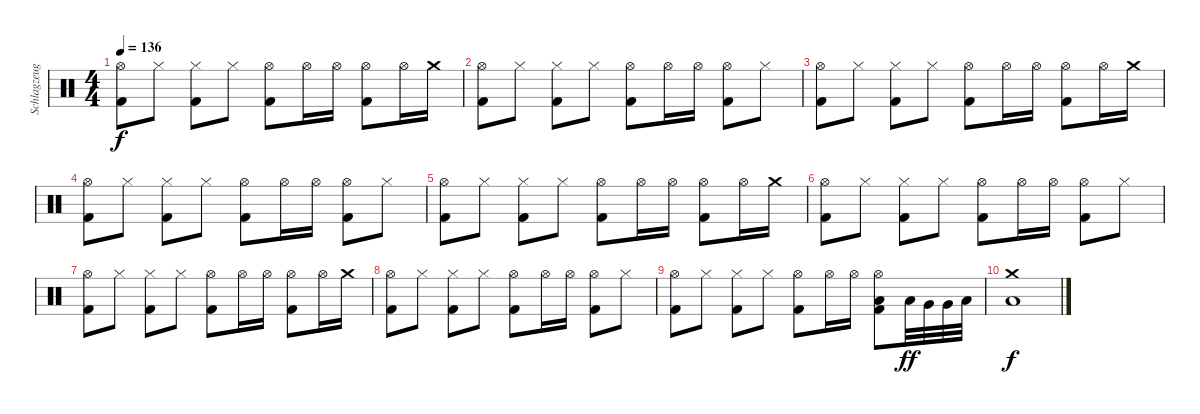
\track ("Schlagzeug - der Hund Marie" "Schlagzeug") {instrument percussion}
\staff {score}
\articulation defaults
\ts (4 4)
\tempo 136
\clef neutral
\ks c
("Hi-Hat (open)" "Kick (hit) 2").8{dy f} "Hi-Hat (closed)".8 ("Hi-Hat (closed)" "Kick (hit) 2").8 "Hi-Hat (closed)".8 ("Hi-Hat (open)" "Kick (hit) 2").8 "Hi-Hat (open)".16 "Hi-Hat (open)".16 ("Hi-Hat (open)" "Kick (hit) 2").8 "Hi-Hat (open)".16 "Crash medium (hit)".16 |
("Hi-Hat (open)" "Kick (hit) 2").8 "Hi-Hat (closed)".8 ("Hi-Hat (closed)" "Kick (hit) 2").8 "Hi-Hat (closed)".8 ("Hi-Hat (open)" "Kick (hit) 2").8 "Hi-Hat (open)".16 "Hi-Hat (open)".16 ("Hi-Hat (open)" "Kick (hit) 2").8 "Hi-Hat (closed)".8 |
("Hi-Hat (open)" "Kick (hit) 2").8 "Hi-Hat (closed)".8 ("Hi-Hat (closed)" "Kick (hit) 2").8 "Hi-Hat (closed)".8 ("Hi-Hat (open)" "Kick (hit) 2").8 "Hi-Hat (open)".16 "Hi-Hat (open)".16 ("Hi-Hat (open)" "Kick (hit) 2").8 "Hi-Hat (open)".16 "Crash medium (hit)".16 |
("Hi-Hat (open)" "Kick (hit) 2").8 "Hi-Hat (closed)".8 ("Hi-Hat (closed)" "Kick (hit) 2").8 "Hi-Hat (closed)".8 ("Hi-Hat (open)" "Kick (hit) 2").8 "Hi-Hat (open)".16 "Hi-Hat (open)".16 ("Hi-Hat (open)" "Kick (hit) 2").8 "Hi-Hat (closed)".8 |
("Hi-Hat (open)" "Kick (hit) 2").8 "Hi-Hat (closed)".8 ("Hi-Hat (closed)" "Kick (hit) 2").8 "Hi-Hat (closed)".8 ("Hi-Hat (open)" "Kick (hit) 2").8 "Hi-Hat (open)".16 "Hi-Hat (open)".16 ("Hi-Hat (open)" "Kick (hit) 2").8 "Hi-Hat (open)".16 "Crash medium (hit)".16 |
("Hi-Hat (open)" "Kick (hit) 2").8 "Hi-Hat (closed)".8 ("Hi-Hat (closed)" "Kick (hit) 2").8 "Hi-Hat (closed)".8 ("Hi-Hat (open)" "Kick (hit) 2").8 "Hi-Hat (open)".16 "Hi-Hat (open)".16 ("Hi-Hat (open)" "Kick (hit) 2").8 "Hi-Hat (closed)".8 |
("Hi-Hat (open)" "Kick (hit) 2").8 "Hi-Hat (closed)".8 ("Hi-Hat (closed)" "Kick (hit) 2").8 "Hi-Hat (closed)".8 ("Hi-Hat (open)" "Kick (hit) 2").8 "Hi-Hat (open)".16 "Hi-Hat (open)".16 ("Hi-Hat (open)" "Kick (hit) 2").8 "Hi-Hat (open)".16 "Crash medium (hit)".16 |
("Hi-Hat (open)" "Kick (hit) 2").8 "Hi-Hat (closed)".8 ("Hi-Hat (closed)" "Kick (hit) 2").8 "Hi-Hat (closed)".8 ("Hi-Hat (open)" "Kick (hit) 2").8 "Hi-Hat (open)".16 "Hi-Hat (open)".16 ("Hi-Hat (open)" "Kick (hit) 2").8 "Hi-Hat (closed)".8 |
("Hi-Hat (open)" "Kick (hit) 2").8 "Hi-Hat (closed)".8 ("Hi-Hat (closed)" "Kick (hit) 2").8 "Hi-Hat (closed)".8 ("Hi-Hat (open)" "Kick (hit) 2").8 "Hi-Hat (open)".16 "Hi-Hat (open)".16 ("Hi-Hat (open)" "Low Tom (hit)" "Kick (hit) 2").8 "Low Tom (hit)".32{dy ff} "Very Low Tom (hit)".32 "Very Low Tom (hit)".32 "Low Floor Tom (hit)".32 |
("Crash medium (hit)" "Low Floor Tom (hit)").1{dy f}
